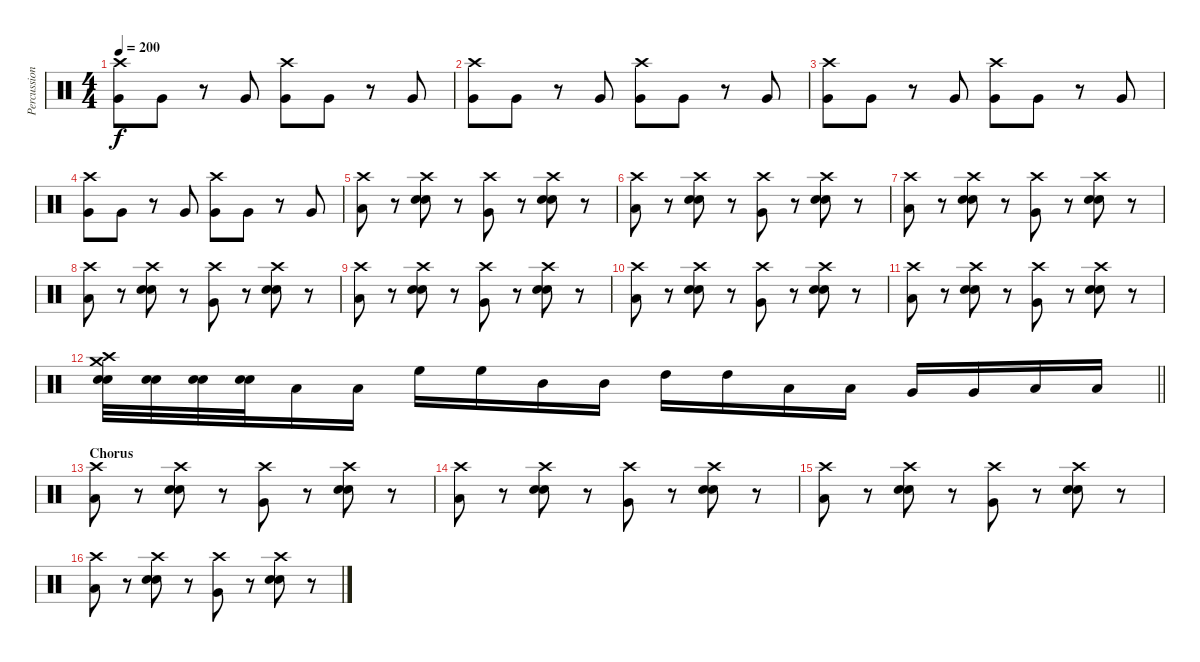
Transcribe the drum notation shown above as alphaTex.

\track ("Percussion" "Percussion") {instrument percussion}
\staff {score}
\articulation defaults
\ts (4 4)
\tempo 200
\clef neutral
\ks c
("Crash high (hit)" "Very Low Tom (hit)").8{dy f} "Very Low Tom (hit)".8 r.8 "Very Low Tom (hit)".8 ("Crash high (hit)" "Very Low Tom (hit)").8 "Very Low Tom (hit)".8 r.8 "Very Low Tom (hit)".8 |
("Crash high (hit)" "Very Low Tom (hit)").8 "Very Low Tom (hit)".8 r.8 "Very Low Tom (hit)".8 ("Crash high (hit)" "Very Low Tom (hit)").8 "Very Low Tom (hit)".8 r.8 "Very Low Tom (hit)".8 |
("Crash high (hit)" "Very Low Tom (hit)").8 "Very Low Tom (hit)".8 r.8 "Very Low Tom (hit)".8 ("Crash high (hit)" "Very Low Tom (hit)").8 "Very Low Tom (hit)".8 r.8 "Very Low Tom (hit)".8 |
("Crash high (hit)" "Very Low Tom (hit)").8 "Very Low Tom (hit)".8 r.8 "Very Low Tom (hit)".8 ("Crash high (hit)" "Very Low Tom (hit)").8 "Very Low Tom (hit)".8 r.8 "Very Low Tom (hit)".8 |
("Crash high (hit)" "Low Floor Tom (hit)").8 r.8 ("Crash high (hit)" "Snare (hit) 2" "Electric Snare (hit)").8 r.8 ("Crash high (hit)" "Very Low Tom (hit)").8 r.8 ("Crash high (hit)" "Snare (hit) 2" "Electric Snare (hit)").8 r.8 |
("Crash high (hit)" "Low Floor Tom (hit)").8 r.8 ("Crash high (hit)" "Snare (hit) 2" "Electric Snare (hit)").8 r.8 ("Crash high (hit)" "Very Low Tom (hit)").8 r.8 ("Crash high (hit)" "Snare (hit) 2" "Electric Snare (hit)").8 r.8 |
("Crash high (hit)" "Low Floor Tom (hit)").8 r.8 ("Crash high (hit)" "Snare (hit) 2" "Electric Snare (hit)").8 r.8 ("Crash high (hit)" "Very Low Tom (hit)").8 r.8 ("Crash high (hit)" "Snare (hit) 2" "Electric Snare (hit)").8 r.8 |
("Crash high (hit)" "Low Floor Tom (hit)").8 r.8 ("Crash high (hit)" "Snare (hit) 2" "Electric Snare (hit)").8 r.8 ("Crash high (hit)" "Very Low Tom (hit)").8 r.8 ("Crash high (hit)" "Snare (hit) 2" "Electric Snare (hit)").8 r.8 |
("Crash high (hit)" "Low Floor Tom (hit)").8 r.8 ("Crash high (hit)" "Snare (hit) 2" "Electric Snare (hit)").8 r.8 ("Crash high (hit)" "Very Low Tom (hit)").8 r.8 ("Crash high (hit)" "Snare (hit) 2" "Electric Snare (hit)").8 r.8 |
("Crash high (hit)" "Low Floor Tom (hit)").8 r.8 ("Crash high (hit)" "Snare (hit) 2" "Electric Snare (hit)").8 r.8 ("Crash high (hit)" "Very Low Tom (hit)").8 r.8 ("Crash high (hit)" "Snare (hit) 2" "Electric Snare (hit)").8 r.8 |
("Crash high (hit)" "Low Floor Tom (hit)").8 r.8 ("Crash high (hit)" "Snare (hit) 2" "Electric Snare (hit)").8 r.8 ("Crash high (hit)" "Very Low Tom (hit)").8 r.8 ("Crash high (hit)" "Snare (hit) 2" "Electric Snare (hit)").8 r.8 |
\barLineRight lightlight
("Crash high (hit)" "Crash medium (hit)" "Snare (hit) 2" "Electric Snare (hit)").32 ("Snare (hit) 2" "Electric Snare (hit)").32 ("Snare (hit) 2" "Electric Snare (hit)").32 ("Snare (hit) 2" "Electric Snare (hit)").32 "Low Tom (hit)".16 "Low Tom (hit)".16 "High Floor Tom (hit)".16 "High Floor Tom (hit)".16 "Mid Tom (hit)".16 "Mid Tom (hit)".16 "High Tom (hit)".16 "High Tom (hit)".16 "Low Tom (hit)".16 "Low Tom (hit)".16 "Very Low Tom (hit)".16 "Very Low Tom (hit)".16 "Low Floor Tom (hit)".16 "Low Floor Tom (hit)".16 |
\section ("" "Chorus")
("Crash high (hit)" "Low Floor Tom (hit)").8 r.8 ("Crash high (hit)" "Snare (hit) 2" "Electric Snare (hit)").8 r.8 ("Crash high (hit)" "Very Low Tom (hit)").8 r.8 ("Crash high (hit)" "Snare (hit) 2" "Electric Snare (hit)").8 r.8 |
("Crash high (hit)" "Low Floor Tom (hit)").8 r.8 ("Crash high (hit)" "Snare (hit) 2" "Electric Snare (hit)").8 r.8 ("Crash high (hit)" "Very Low Tom (hit)").8 r.8 ("Crash high (hit)" "Snare (hit) 2" "Electric Snare (hit)").8 r.8 |
("Crash high (hit)" "Low Floor Tom (hit)").8 r.8 ("Crash high (hit)" "Snare (hit) 2" "Electric Snare (hit)").8 r.8 ("Crash high (hit)" "Very Low Tom (hit)").8 r.8 ("Crash high (hit)" "Snare (hit) 2" "Electric Snare (hit)").8 r.8 |
("Crash high (hit)" "Low Floor Tom (hit)").8 r.8 ("Crash high (hit)" "Snare (hit) 2" "Electric Snare (hit)").8 r.8 ("Crash high (hit)" "Very Low Tom (hit)").8 r.8 ("Crash high (hit)" "Snare (hit) 2" "Electric Snare (hit)").8 r.8
